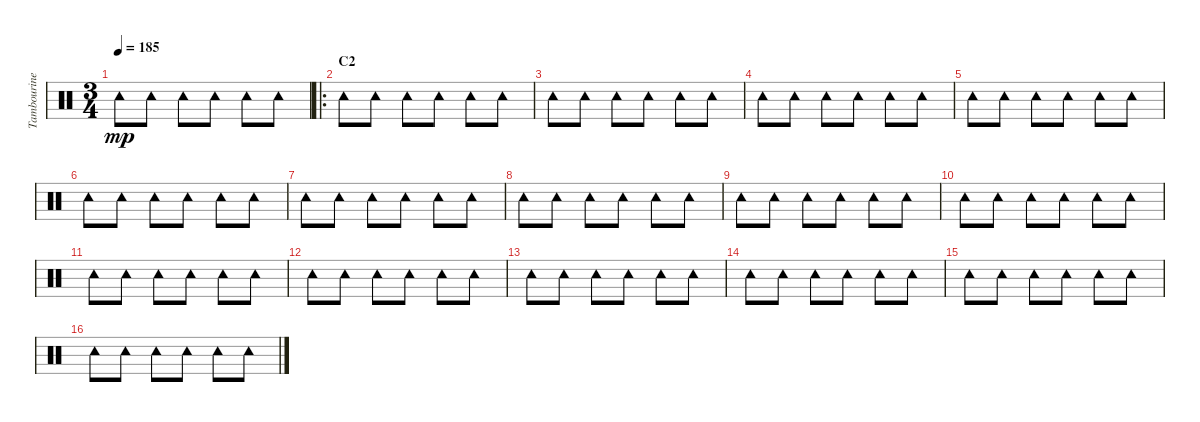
\track ("Tambourine" "Tambourine") {instrument percussion}
\staff {score}
\articulation defaults
\ts (3 4)
\tempo 185
\clef neutral
\ks c "Tambourine (hit)".8{dy mp} "Tambourine (hit)".8 "Tambourine (hit)".8 "Tambourine (hit)".8 "Tambourine (hit)".8 "Tambourine (hit)".8
|
\ro
\section ("" "C2")
"Tambourine (hit)".8 "Tambourine (hit)".8 "Tambourine (hit)".8 "Tambourine (hit)".8 "Tambourine (hit)".8 "Tambourine (hit)".8 |
"Tambourine (hit)".8 "Tambourine (hit)".8 "Tambourine (hit)".8 "Tambourine (hit)".8 "Tambourine (hit)".8 "Tambourine (hit)".8 |
"Tambourine (hit)".8 "Tambourine (hit)".8 "Tambourine (hit)".8 "Tambourine (hit)".8 "Tambourine (hit)".8 "Tambourine (hit)".8 |
"Tambourine (hit)".8 "Tambourine (hit)".8 "Tambourine (hit)".8 "Tambourine (hit)".8 "Tambourine (hit)".8 "Tambourine (hit)".8 |
"Tambourine (hit)".8 "Tambourine (hit)".8 "Tambourine (hit)".8 "Tambourine (hit)".8 "Tambourine (hit)".8 "Tambourine (hit)".8 |
"Tambourine (hit)".8 "Tambourine (hit)".8 "Tambourine (hit)".8 "Tambourine (hit)".8 "Tambourine (hit)".8 "Tambourine (hit)".8 |
"Tambourine (hit)".8 "Tambourine (hit)".8 "Tambourine (hit)".8 "Tambourine (hit)".8 "Tambourine (hit)".8 "Tambourine (hit)".8 |
"Tambourine (hit)".8 "Tambourine (hit)".8 "Tambourine (hit)".8 "Tambourine (hit)".8 "Tambourine (hit)".8 "Tambourine (hit)".8 |
"Tambourine (hit)".8 "Tambourine (hit)".8 "Tambourine (hit)".8 "Tambourine (hit)".8 "Tambourine (hit)".8 "Tambourine (hit)".8 |
"Tambourine (hit)".8 "Tambourine (hit)".8 "Tambourine (hit)".8 "Tambourine (hit)".8 "Tambourine (hit)".8 "Tambourine (hit)".8 |
"Tambourine (hit)".8 "Tambourine (hit)".8 "Tambourine (hit)".8 "Tambourine (hit)".8 "Tambourine (hit)".8 "Tambourine (hit)".8 |
"Tambourine (hit)".8 "Tambourine (hit)".8 "Tambourine (hit)".8 "Tambourine (hit)".8 "Tambourine (hit)".8 "Tambourine (hit)".8 |
"Tambourine (hit)".8 "Tambourine (hit)".8 "Tambourine (hit)".8 "Tambourine (hit)".8 "Tambourine (hit)".8 "Tambourine (hit)".8 |
"Tambourine (hit)".8 "Tambourine (hit)".8 "Tambourine (hit)".8 "Tambourine (hit)".8 "Tambourine (hit)".8 "Tambourine (hit)".8 |
"Tambourine (hit)".8 "Tambourine (hit)".8 "Tambourine (hit)".8 "Tambourine (hit)".8 "Tambourine (hit)".8 "Tambourine (hit)".8
